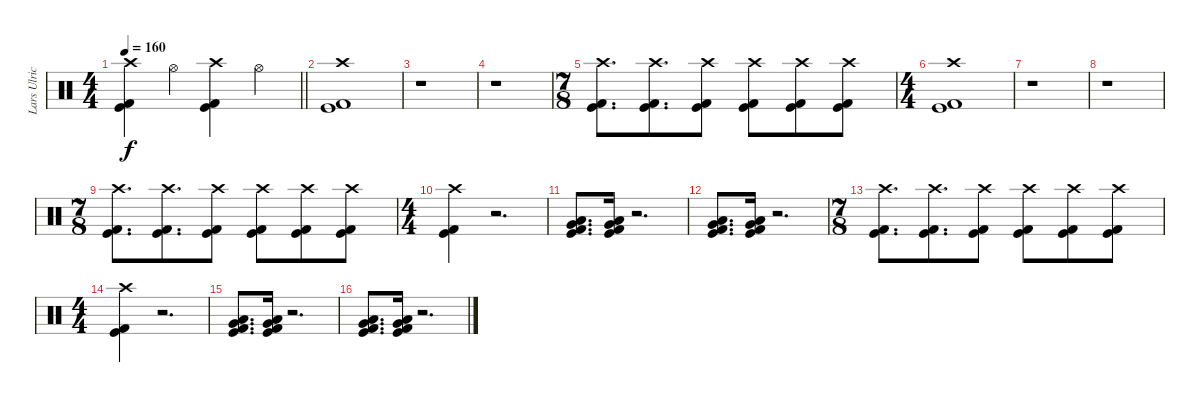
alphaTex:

\track ("Lars Ulrich" "Lars Ulric") {instrument percussion}
\staff {score}
\articulation defaults
\ts (4 4)
\tempo 160
\clef neutral
\barLineRight lightlight
\ks c
("Crash high (hit)" "Kick (hit) 2" "Kick (hit)").4{dy f} "Hi-Hat (open)".4 ("Crash high (hit)" "Kick (hit) 2" "Kick (hit)").4 "Hi-Hat (open)".4 |
("Crash high (hit)" "Kick (hit) 2" "Kick (hit)").1 |
r.1 |
r.1 |
\ts (7 8)
("Crash high (hit)" "Kick (hit) 2" "Kick (hit)").8{d} ("Crash high (hit)" "Kick (hit) 2" "Kick (hit)").8{d} ("Crash high (hit)" "Kick (hit) 2" "Kick (hit)").8 ("Crash high (hit)" "Kick (hit) 2" "Kick (hit)").8 ("Crash high (hit)" "Kick (hit) 2" "Kick (hit)").8 ("Crash high (hit)" "Kick (hit) 2" "Kick (hit)").8 |
\ts (4 4)
("Crash high (hit)" "Kick (hit) 2" "Kick (hit)").1 |
r.1 |
r.1 |
\ts (7 8)
("Crash high (hit)" "Kick (hit) 2" "Kick (hit)").8{d} ("Crash high (hit)" "Kick (hit) 2" "Kick (hit)").8{d} ("Crash high (hit)" "Kick (hit) 2" "Kick (hit)").8 ("Crash high (hit)" "Kick (hit) 2" "Kick (hit)").8 ("Crash high (hit)" "Kick (hit) 2" "Kick (hit)").8 ("Crash high (hit)" "Kick (hit) 2" "Kick (hit)").8 |
\ts (4 4)
("Crash high (hit)" "Kick (hit) 2" "Kick (hit)").4 r.2{d} |
("Very Low Tom (hit)" "Low Tom (hit)" "Kick (hit) 2" "Kick (hit)").8{d} ("Very Low Tom (hit)" "Low Tom (hit)" "Kick (hit) 2" "Kick (hit)").16 r.2{d} |
("Very Low Tom (hit)" "Low Tom (hit)" "Kick (hit) 2" "Kick (hit)").8{d} ("Very Low Tom (hit)" "Low Tom (hit)" "Kick (hit) 2" "Kick (hit)").16 r.2{d} |
\ts (7 8)
("Crash high (hit)" "Kick (hit) 2" "Kick (hit)").8{d} ("Crash high (hit)" "Kick (hit) 2" "Kick (hit)").8{d} ("Crash high (hit)" "Kick (hit) 2" "Kick (hit)").8 ("Crash high (hit)" "Kick (hit) 2" "Kick (hit)").8 ("Crash high (hit)" "Kick (hit) 2" "Kick (hit)").8 ("Crash high (hit)" "Kick (hit) 2" "Kick (hit)").8 |
\ts (4 4)
("Crash high (hit)" "Kick (hit) 2" "Kick (hit)").4 r.2{d} |
("Very Low Tom (hit)" "Low Tom (hit)" "Kick (hit) 2" "Kick (hit)").8{d} ("Very Low Tom (hit)" "Low Tom (hit)" "Kick (hit) 2" "Kick (hit)").16 r.2{d} |
("Very Low Tom (hit)" "Low Tom (hit)" "Kick (hit) 2" "Kick (hit)").8{d} ("Very Low Tom (hit)" "Low Tom (hit)" "Kick (hit) 2" "Kick (hit)").16 r.2{d}
